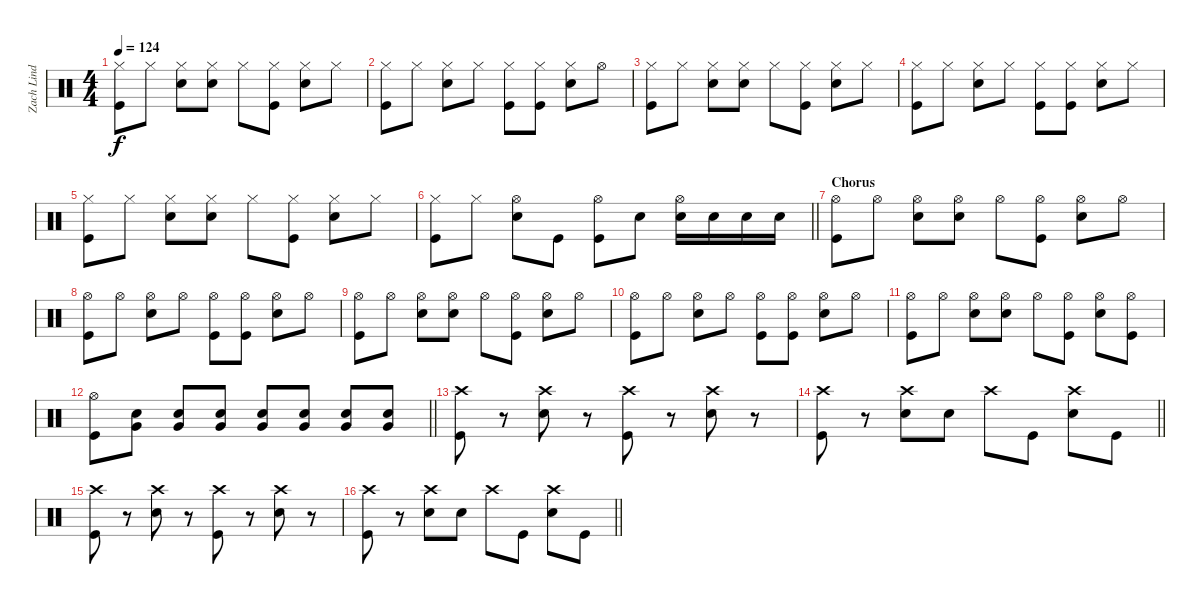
\track ("Zach Lind - Drums" "Zach Lind ") {instrument percussion}
\staff {score}
\articulation defaults
\ts (4 4)
\tempo 124
\clef neutral
\ks c
("Kick (hit)" "Hi-Hat (closed)").8{dy f} "Hi-Hat (closed)".8 ("Snare (hit) 2" "Hi-Hat (closed)").8 ("Snare (hit) 2" "Hi-Hat (closed)").8 "Hi-Hat (closed)".8 ("Kick (hit)" "Hi-Hat (closed)").8 ("Snare (hit) 2" "Hi-Hat (closed)").8 "Hi-Hat (closed)".8 |
("Kick (hit)" "Hi-Hat (closed)").8 "Hi-Hat (closed)".8 ("Snare (hit) 2" "Hi-Hat (closed)").8 "Hi-Hat (closed)".8 ("Kick (hit)" "Hi-Hat (closed)").8 ("Kick (hit)" "Hi-Hat (closed)").8 ("Snare (hit) 2" "Hi-Hat (closed)").8 "Hi-Hat (open)".8 |
("Kick (hit)" "Hi-Hat (closed)").8 "Hi-Hat (closed)".8 ("Snare (hit) 2" "Hi-Hat (closed)").8 ("Snare (hit) 2" "Hi-Hat (closed)").8 "Hi-Hat (closed)".8 ("Kick (hit)" "Hi-Hat (closed)").8 ("Snare (hit) 2" "Hi-Hat (closed)").8 "Hi-Hat (closed)".8 |
("Kick (hit)" "Hi-Hat (closed)").8 "Hi-Hat (closed)".8 ("Snare (hit) 2" "Hi-Hat (closed)").8 "Hi-Hat (closed)".8 ("Kick (hit)" "Hi-Hat (closed)").8 ("Kick (hit)" "Hi-Hat (closed)").8 ("Snare (hit) 2" "Hi-Hat (closed)").8 "Hi-Hat (closed)".8 |
("Kick (hit)" "Hi-Hat (closed)").8 "Hi-Hat (closed)".8 ("Snare (hit) 2" "Hi-Hat (closed)").8 ("Snare (hit) 2" "Hi-Hat (closed)").8 "Hi-Hat (closed)".8 ("Kick (hit)" "Hi-Hat (closed)").8 ("Snare (hit) 2" "Hi-Hat (closed)").8 "Hi-Hat (closed)".8 |
\barLineRight lightlight
("Kick (hit)" "Hi-Hat (closed)").8 "Hi-Hat (closed)".8 ("Snare (hit) 2" "Hi-Hat (open)").8 "Kick (hit)".8 ("Kick (hit)" "Hi-Hat (open)").8 "Snare (hit) 2".8 ("Snare (hit) 2" "Hi-Hat (open)").16 "Snare (hit) 2".16 "Snare (hit) 2".16 "Snare (hit) 2".16 |
\section ("" "Chorus")
("Kick (hit)" "Hi-Hat (open)").8 "Hi-Hat (open)".8 ("Snare (hit) 2" "Hi-Hat (open)").8 ("Snare (hit) 2" "Hi-Hat (open)").8 "Hi-Hat (open)".8 ("Kick (hit)" "Hi-Hat (open)").8 ("Snare (hit) 2" "Hi-Hat (open)").8 "Hi-Hat (open)".8 |
("Kick (hit)" "Hi-Hat (open)").8 "Hi-Hat (open)".8 ("Snare (hit) 2" "Hi-Hat (open)").8 "Hi-Hat (open)".8 ("Kick (hit)" "Hi-Hat (open)").8 ("Kick (hit)" "Hi-Hat (open)").8 ("Snare (hit) 2" "Hi-Hat (open)").8 "Hi-Hat (open)".8 |
("Kick (hit)" "Hi-Hat (open)").8 "Hi-Hat (open)".8 ("Snare (hit) 2" "Hi-Hat (open)").8 ("Snare (hit) 2" "Hi-Hat (open)").8 "Hi-Hat (open)".8 ("Kick (hit)" "Hi-Hat (open)").8 ("Snare (hit) 2" "Hi-Hat (open)").8 "Hi-Hat (open)".8 |
("Kick (hit)" "Hi-Hat (open)").8 "Hi-Hat (open)".8 ("Snare (hit) 2" "Hi-Hat (open)").8 "Hi-Hat (open)".8 ("Kick (hit)" "Hi-Hat (open)").8 ("Kick (hit)" "Hi-Hat (open)").8 ("Snare (hit) 2" "Hi-Hat (open)").8 "Hi-Hat (open)".8 |
("Kick (hit)" "Hi-Hat (open)").8 "Hi-Hat (open)".8 ("Snare (hit) 2" "Hi-Hat (open)").8 ("Snare (hit) 2" "Hi-Hat (open)").8 "Hi-Hat (open)".8 ("Kick (hit)" "Hi-Hat (open)").8 ("Snare (hit) 2" "Hi-Hat (open)").8 ("Kick (hit)" "Hi-Hat (open)").8 |
\barLineRight lightlight
("Kick (hit)" "Hi-Hat (open)").8 ("Snare (hit) 2" "Very Low Tom (hit)").8 ("Snare (hit) 2" "Very Low Tom (hit)").8 ("Snare (hit) 2" "Very Low Tom (hit)").8 ("Snare (hit) 2" "Very Low Tom (hit)").8 ("Snare (hit) 2" "Very Low Tom (hit)").8 ("Snare (hit) 2" "Very Low Tom (hit)").8 ("Snare (hit) 2" "Very Low Tom (hit)").8 |
("Kick (hit)" "Crash high (hit)").8 r.8 ("Snare (hit) 2" "Crash high (hit)").8 r.8 ("Kick (hit)" "Crash high (hit)").8 r.8 ("Snare (hit) 2" "Crash high (hit)").8 r.8 |
\barLineRight lightlight
("Kick (hit)" "Crash high (hit)").8 r.8 ("Snare (hit) 2" "Crash high (hit)").8 "Snare (hit) 2".8 "Crash high (hit)".8 "Kick (hit)".8 ("Snare (hit) 2" "Crash high (hit)").8 "Kick (hit)".8 |
("Kick (hit)" "Crash high (hit)").8 r.8 ("Snare (hit) 2" "Crash high (hit)").8 r.8 ("Kick (hit)" "Crash high (hit)").8 r.8 ("Snare (hit) 2" "Crash high (hit)").8 r.8 |
\barLineRight lightlight
("Kick (hit)" "Crash high (hit)").8 r.8 ("Snare (hit) 2" "Crash high (hit)").8 "Snare (hit) 2".8 "Crash high (hit)".8 "Kick (hit)".8 ("Snare (hit) 2" "Crash high (hit)").8 "Kick (hit)".8
